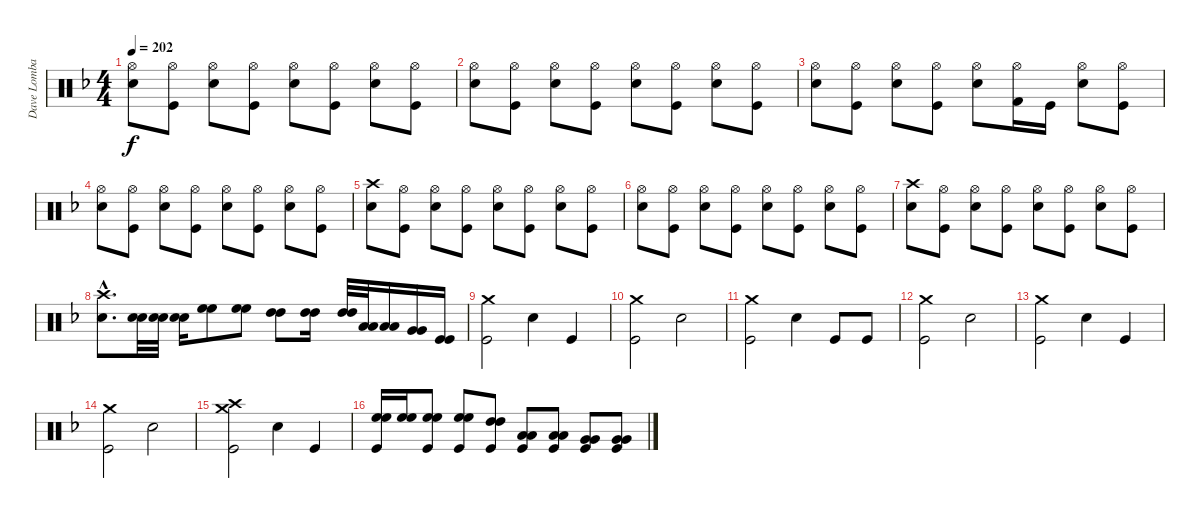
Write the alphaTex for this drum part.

\track ("Dave Lombardo - Drums" "Dave Lomba") {instrument percussion}
\staff {score}
\articulation defaults
\ts (4 4)
\tempo 202
\clef neutral
\ks f
("Hi-Hat (open)" "Snare (hit) 2").8{dy f} ("Hi-Hat (open)" "Kick (hit)").8 ("Hi-Hat (open)" "Snare (hit) 2").8 ("Hi-Hat (open)" "Kick (hit)").8 ("Hi-Hat (open)" "Snare (hit) 2").8 ("Hi-Hat (open)" "Kick (hit)").8 ("Hi-Hat (open)" "Snare (hit) 2").8 ("Hi-Hat (open)" "Kick (hit)").8 |
("Hi-Hat (open)" "Snare (hit) 2").8 ("Hi-Hat (open)" "Kick (hit)").8 ("Hi-Hat (open)" "Snare (hit) 2").8 ("Hi-Hat (open)" "Kick (hit)").8 ("Hi-Hat (open)" "Snare (hit) 2").8 ("Hi-Hat (open)" "Kick (hit)").8 ("Hi-Hat (open)" "Snare (hit) 2").8 ("Hi-Hat (open)" "Kick (hit)").8 |
("Hi-Hat (open)" "Snare (hit) 2").8 ("Hi-Hat (open)" "Kick (hit)").8 ("Hi-Hat (open)" "Snare (hit) 2").8 ("Hi-Hat (open)" "Kick (hit)").8 ("Hi-Hat (open)" "Snare (hit) 2").8 ("Hi-Hat (open)" "Kick (hit) 2").16 "Kick (hit)".16 ("Hi-Hat (open)" "Snare (hit) 2").8 ("Hi-Hat (open)" "Kick (hit)").8 |
("Hi-Hat (open)" "Snare (hit) 2").8 ("Hi-Hat (open)" "Kick (hit)").8 ("Hi-Hat (open)" "Snare (hit) 2").8 ("Hi-Hat (open)" "Kick (hit)").8 ("Hi-Hat (open)" "Snare (hit) 2").8 ("Hi-Hat (open)" "Kick (hit)").8 ("Hi-Hat (open)" "Snare (hit) 2").8 ("Hi-Hat (open)" "Kick (hit)").8 |
("Crash high (hit)" "Snare (hit) 2").8 ("Hi-Hat (open)" "Kick (hit)").8 ("Hi-Hat (open)" "Snare (hit) 2").8 ("Hi-Hat (open)" "Kick (hit)").8 ("Hi-Hat (open)" "Snare (hit) 2").8 ("Hi-Hat (open)" "Kick (hit)").8 ("Hi-Hat (open)" "Snare (hit) 2").8 ("Hi-Hat (open)" "Kick (hit)").8 |
("Hi-Hat (open)" "Snare (hit) 2").8 ("Hi-Hat (open)" "Kick (hit)").8 ("Hi-Hat (open)" "Snare (hit) 2").8 ("Hi-Hat (open)" "Kick (hit)").8 ("Hi-Hat (open)" "Snare (hit) 2").8 ("Hi-Hat (open)" "Kick (hit)").8 ("Hi-Hat (open)" "Snare (hit) 2").8 ("Hi-Hat (open)" "Kick (hit)").8 |
("Crash high (hit)" "Snare (hit) 2").8 ("Hi-Hat (open)" "Kick (hit)").8 ("Hi-Hat (open)" "Snare (hit) 2").8 ("Hi-Hat (open)" "Kick (hit)").8 ("Hi-Hat (open)" "Snare (hit) 2").8 ("Hi-Hat (open)" "Kick (hit)").8 ("Hi-Hat (open)" "Snare (hit) 2").8 ("Hi-Hat (open)" "Kick (hit)").8 |
("Crash high (hit)"{hac} "Snare (hit) 2"{hac}).8{d} ("Snare (hit) 2" "Snare (hit) 2").32 ("Snare (hit) 2" "Snare (hit) 2").32 ("Snare (hit) 2" "Snare (hit) 2").16 ("High Floor Tom (hit)" "High Floor Tom (hit)").8 ("High Floor Tom (hit)" "High Floor Tom (hit)").8 ("High Tom (hit)" "High Tom (hit)").8 ("High Tom (hit)" "High Tom (hit)").16 ("High Tom (hit)" "High Tom (hit)").32 ("Low Tom (hit)" "Low Tom (hit)").32 ("Low Tom (hit)" "Low Tom (hit)").16 ("Very Low Tom (hit)" "Very Low Tom (hit)").16 ("Kick (hit)" "Kick (hit)").16 |
("Crash medium (hit)" "Kick (hit)").2 "Snare (hit) 2".4 "Kick (hit)".4 |
("Crash medium (hit)" "Kick (hit)").2 "Snare (hit) 2".2 |
("Crash medium (hit)" "Kick (hit)").2 "Snare (hit) 2".4 "Kick (hit)".8 "Kick (hit)".8 |
("Crash medium (hit)" "Kick (hit)").2 "Snare (hit) 2".2 |
("Crash medium (hit)" "Kick (hit)").2 "Snare (hit) 2".4 "Kick (hit)".4 |
("Crash medium (hit)" "Kick (hit)").2 "Snare (hit) 2".2 |
("Crash medium (hit)" "Crash high (hit)" "Kick (hit)").2 "Snare (hit) 2".4 "Kick (hit)".4 |
("Kick (hit)" "High Floor Tom (hit)" "High Floor Tom (hit)").16 ("High Floor Tom (hit)" "High Floor Tom (hit)").16 ("Kick (hit)" "High Floor Tom (hit)" "High Floor Tom (hit)").8 ("Kick (hit)" "High Floor Tom (hit)" "High Floor Tom (hit)").8 ("Kick (hit)" "High Tom (hit)" "High Tom (hit)").8 ("Kick (hit)" "Low Tom (hit)" "Low Tom (hit)").8 ("Kick (hit)" "Low Tom (hit)" "Low Tom (hit)").8 ("Kick (hit)" "Very Low Tom (hit)" "Very Low Tom (hit)").8 ("Kick (hit)" "Very Low Tom (hit)" "Very Low Tom (hit)").8
